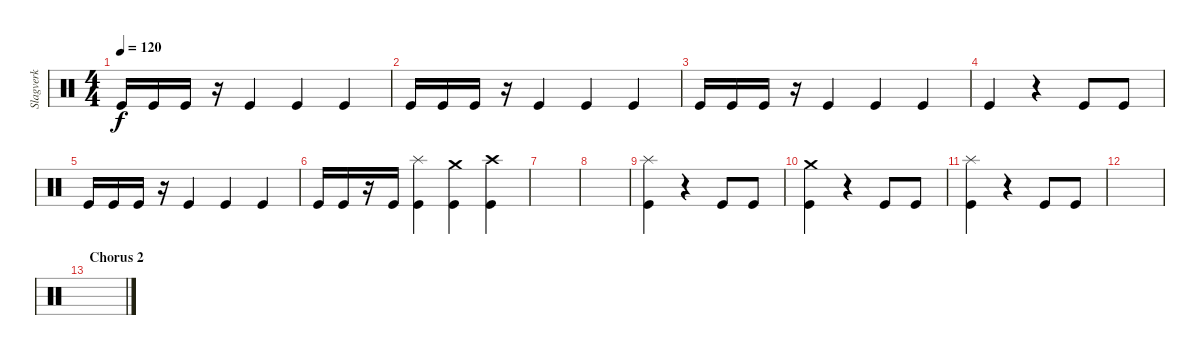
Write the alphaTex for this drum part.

\track ("Slagverk" "Slagverk") {instrument percussion}
\staff {score}
\articulation defaults
\ts (4 4)
\tempo 120
\clef neutral
\ks c "Kick (hit)".16{dy f} "Kick (hit)".16 "Kick (hit)".16
r.16 "Kick (hit)".4 "Kick (hit)".4 "Kick (hit)".4 |
"Kick (hit)".16 "Kick (hit)".16 "Kick (hit)".16 r.16 "Kick (hit)".4 "Kick (hit)".4 "Kick (hit)".4 |
"Kick (hit)".16 "Kick (hit)".16 "Kick (hit)".16 r.16 "Kick (hit)".4 "Kick (hit)".4 "Kick (hit)".4 |
"Kick (hit)".4 r.4 "Kick (hit)".8 "Kick (hit)".8 |
"Kick (hit)".16 "Kick (hit)".16 "Kick (hit)".16 r.16 "Kick (hit)".4 "Kick (hit)".4 "Kick (hit)".4 |
"Kick (hit)".16 "Kick (hit)".16 r.16 "Kick (hit)".16 ("Splash (hit)" "Kick (hit)").4 ("Crash medium (hit)" "Kick (hit)").4 ("Crash high (hit)" "Kick (hit)").4 |
|
|
("Kick (hit)" "Splash (hit)").4 r.4 "Kick (hit)".8 "Kick (hit)".8 |
("Kick (hit)" "Crash medium (hit)").4 r.4 "Kick (hit)".8 "Kick (hit)".8 |
("Kick (hit)" "Splash (hit)").4 r.4 "Kick (hit)".8 "Kick (hit)".8 |
|
\section ("" "Chorus 2")
